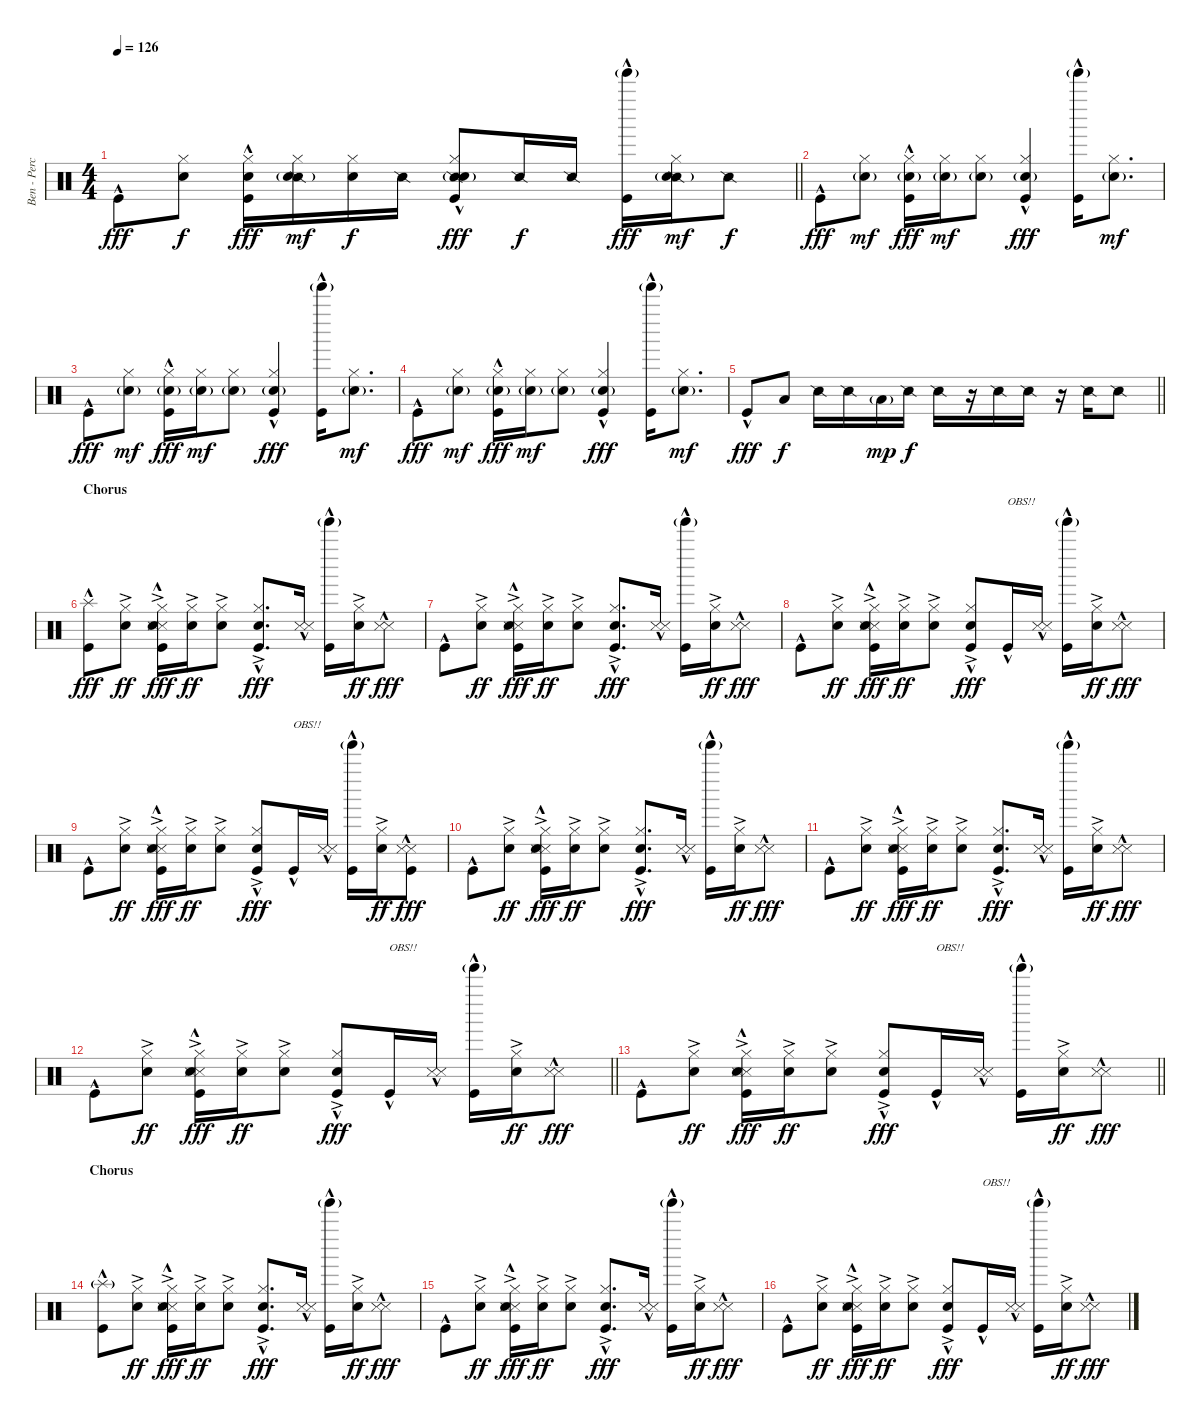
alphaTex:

\track ("Ben - Percussion" "Ben - Perc") {instrument percussion}
\staff {score}
\articulation defaults
\ts (4 4)
\tempo 126
\clef neutral
\barLineRight lightlight
\ks c "Kick (hit)"{hac}.8{dy fff}
("Hi-Hat (closed)" "Snare (hit) 2").8{dy f} ("Hi-Hat (closed)" "Snare (hit) 2" "Kick (hit)"{hac}).16{dy fff} ("Hi-Hat (closed)" "Snare (side stick) 2" "Snare (hit) 2"{g}).16{dy mf} ("Hi-Hat (closed)" "Snare (hit) 2").16{dy f} "Snare (side stick) 2".16 ("Hi-Hat (closed)" "Snare (side stick) 2" "Snare (hit) 2"{g} "Kick (hit)"{hac}).8{dy fff} "Snare (side stick) 2".16{dy f} "Snare (side stick) 2".16 ("Tinkle Bell (hit)"{g} "Kick (hit)"{hac}).16{dy fff} ("Hi-Hat (closed)" "Snare (side stick) 2" "Snare (hit) 2"{g}).16{dy mf} "Snare (side stick) 2".8{dy f} |
"Kick (hit)"{hac}.8{dy fff} ("Hi-Hat (closed)" "Snare (hit) 2"{g}).8{dy mf} ("Hi-Hat (closed)" "Snare (hit) 2"{g} "Kick (hit)"{hac}).16{dy fff} ("Hi-Hat (closed)" "Snare (hit) 2"{g}).16{dy mf} ("Hi-Hat (closed)" "Snare (hit) 2"{g}).8 ("Hi-Hat (closed)" "Snare (hit) 2"{g} "Kick (hit)"{hac}).4{dy fff} ("Tinkle Bell (hit)"{g} "Kick (hit)"{hac}).16 ("Hi-Hat (closed)" "Snare (hit) 2"{g}).8{d dy mf} |
"Kick (hit)"{hac}.8{dy fff} ("Hi-Hat (closed)" "Snare (hit) 2"{g}).8{dy mf} ("Hi-Hat (closed)" "Snare (hit) 2"{g} "Kick (hit)"{hac}).16{dy fff} ("Hi-Hat (closed)" "Snare (hit) 2"{g}).16{dy mf} ("Hi-Hat (closed)" "Snare (hit) 2"{g}).8 ("Hi-Hat (closed)" "Snare (hit) 2"{g} "Kick (hit)"{hac}).4{dy fff} ("Tinkle Bell (hit)"{g} "Kick (hit)"{hac}).16 ("Hi-Hat (closed)" "Snare (hit) 2"{g}).8{d dy mf} |
"Kick (hit)"{hac}.8{dy fff} ("Hi-Hat (closed)" "Snare (hit) 2"{g}).8{dy mf} ("Hi-Hat (closed)" "Snare (hit) 2"{g} "Kick (hit)"{hac}).16{dy fff} ("Hi-Hat (closed)" "Snare (hit) 2"{g}).16{dy mf} ("Hi-Hat (closed)" "Snare (hit) 2"{g}).8 ("Hi-Hat (closed)" "Snare (hit) 2"{g} "Kick (hit)"{hac}).4{dy fff} ("Tinkle Bell (hit)"{g} "Kick (hit)"{hac}).16 ("Hi-Hat (closed)" "Snare (hit) 2"{g}).8{d dy mf} |
\barLineRight lightlight "Kick (hit)"{hac}.8{dy fff} "Low Tom (hit)".8{dy f} "Snare (side stick) 2".16 "Snare (side stick) 2".16 "Low Tom (hit)"{g}.16{dy mp} "Snare (side stick) 2".16{dy f} "Snare (side stick) 2".16
r.16 "Snare (side stick) 2".16 "Snare (side stick) 2".16 r.16 "Snare (side stick) 2".16 "Snare (side stick) 2".8 |
\section ("" "Chorus")
("Splash (hit)" "Kick (hit)"{hac}).8{dy fff} ("Hi-Hat (closed)"{ac} "Snare (hit) 2").8{dy ff} ("Hi-Hat (closed)"{ac} "Metronome (hit)"{hac} "Snare (side stick) 3"{hac} "Snare (hit) 2" "Kick (hit)"{hac}).16{dy fff} ("Hi-Hat (closed)"{ac} "Snare (hit) 2").16{dy ff} ("Hi-Hat (closed)"{ac} "Snare (hit) 2").8 ("Hi-Hat (closed)"{ac} "Snare (hit) 2" "Kick (hit)"{hac}).8{d dy fff} ("Metronome (hit)"{hac} "Snare (side stick) 3"{hac}).16 ("Tinkle Bell (hit)"{g} "Kick (hit)"{hac}).16 ("Hi-Hat (closed)"{ac} "Snare (hit) 2").16{dy ff} ("Metronome (hit)"{hac} "Snare (side stick) 3"{hac}).8{dy fff} |
"Kick (hit)"{hac}.8 ("Hi-Hat (closed)"{ac} "Snare (hit) 2").8{dy ff} ("Hi-Hat (closed)"{ac} "Metronome (hit)"{hac} "Snare (side stick) 3"{hac} "Snare (hit) 2" "Kick (hit)"{hac}).16{dy fff} ("Hi-Hat (closed)"{ac} "Snare (hit) 2").16{dy ff} ("Hi-Hat (closed)"{ac} "Snare (hit) 2").8 ("Hi-Hat (closed)"{ac} "Snare (hit) 2" "Kick (hit)"{hac}).8{d dy fff} ("Metronome (hit)"{hac} "Snare (side stick) 3"{hac}).16 ("Tinkle Bell (hit)"{g} "Kick (hit)"{hac}).16 ("Hi-Hat (closed)"{ac} "Snare (hit) 2").16{dy ff} ("Metronome (hit)"{hac} "Snare (side stick) 3"{hac}).8{dy fff} |
"Kick (hit)"{hac}.8 ("Hi-Hat (closed)"{ac} "Snare (hit) 2").8{dy ff} ("Hi-Hat (closed)"{ac} "Metronome (hit)"{hac} "Snare (side stick) 3"{hac} "Snare (hit) 2" "Kick (hit)"{hac}).16{dy fff} ("Hi-Hat (closed)"{ac} "Snare (hit) 2").16{dy ff} ("Hi-Hat (closed)"{ac} "Snare (hit) 2").8 ("Hi-Hat (closed)"{ac} "Snare (hit) 2" "Kick (hit)"{hac}).8{dy fff} "Kick (hit)"{hac}.16{txt "OBS!!"} ("Metronome (hit)"{hac} "Snare (side stick) 3"{hac}).16 ("Tinkle Bell (hit)"{g} "Kick (hit)"{hac}).16 ("Hi-Hat (closed)"{ac} "Snare (hit) 2").16{dy ff} ("Metronome (hit)"{hac} "Snare (side stick) 3"{hac}).8{dy fff} |
"Kick (hit)"{hac}.8 ("Hi-Hat (closed)"{ac} "Snare (hit) 2").8{dy ff} ("Hi-Hat (closed)"{ac} "Metronome (hit)"{hac} "Snare (side stick) 3"{hac} "Snare (hit) 2" "Kick (hit)"{hac}).16{dy fff} ("Hi-Hat (closed)"{ac} "Snare (hit) 2").16{dy ff} ("Hi-Hat (closed)"{ac} "Snare (hit) 2").8 ("Hi-Hat (closed)"{ac} "Snare (hit) 2" "Kick (hit)"{hac}).8{dy fff} "Kick (hit)"{hac}.16{txt "OBS!!"} ("Metronome (hit)"{hac} "Snare (side stick) 3"{hac}).16 ("Tinkle Bell (hit)"{g} "Kick (hit)"{hac}).16 ("Hi-Hat (closed)"{ac} "Snare (hit) 2").16{dy ff} ("Metronome (hit)"{hac} "Snare (side stick) 3"{hac} "Kick (hit)"{hac}).8{dy fff} |
"Kick (hit)"{hac}.8 ("Hi-Hat (closed)"{ac} "Snare (hit) 2").8{dy ff} ("Hi-Hat (closed)"{ac} "Metronome (hit)"{hac} "Snare (side stick) 3"{hac} "Snare (hit) 2" "Kick (hit)"{hac}).16{dy fff} ("Hi-Hat (closed)"{ac} "Snare (hit) 2").16{dy ff} ("Hi-Hat (closed)"{ac} "Snare (hit) 2").8 ("Hi-Hat (closed)"{ac} "Snare (hit) 2" "Kick (hit)"{hac}).8{d dy fff} ("Metronome (hit)"{hac} "Snare (side stick) 3"{hac}).16 ("Tinkle Bell (hit)"{g} "Kick (hit)"{hac}).16 ("Hi-Hat (closed)"{ac} "Snare (hit) 2").16{dy ff} ("Metronome (hit)"{hac} "Snare (side stick) 3"{hac}).8{dy fff} |
"Kick (hit)"{hac}.8 ("Hi-Hat (closed)"{ac} "Snare (hit) 2").8{dy ff} ("Hi-Hat (closed)"{ac} "Metronome (hit)"{hac} "Snare (side stick) 3"{hac} "Snare (hit) 2" "Kick (hit)"{hac}).16{dy fff} ("Hi-Hat (closed)"{ac} "Snare (hit) 2").16{dy ff} ("Hi-Hat (closed)"{ac} "Snare (hit) 2").8 ("Hi-Hat (closed)"{ac} "Snare (hit) 2" "Kick (hit)"{hac}).8{d dy fff} ("Metronome (hit)"{hac} "Snare (side stick) 3"{hac}).16 ("Tinkle Bell (hit)"{g} "Kick (hit)"{hac}).16 ("Hi-Hat (closed)"{ac} "Snare (hit) 2").16{dy ff} ("Metronome (hit)"{hac} "Snare (side stick) 3"{hac}).8{dy fff} |
\barLineRight lightlight "Kick (hit)"{hac}.8
("Hi-Hat (closed)"{ac} "Snare (hit) 2").8{dy ff} ("Hi-Hat (closed)"{ac} "Metronome (hit)"{hac} "Snare (side stick) 3"{hac} "Snare (hit) 2" "Kick (hit)"{hac}).16{dy fff} ("Hi-Hat (closed)"{ac} "Snare (hit) 2").16{dy ff} ("Hi-Hat (closed)"{ac} "Snare (hit) 2").8 ("Hi-Hat (closed)"{ac} "Snare (hit) 2" "Kick (hit)"{hac}).8{dy fff} "Kick (hit)"{hac}.16{txt "OBS!!"} ("Metronome (hit)"{hac} "Snare (side stick) 3"{hac}).16 ("Tinkle Bell (hit)"{g} "Kick (hit)"{hac}).16 ("Hi-Hat (closed)"{ac} "Snare (hit) 2").16{dy ff} ("Metronome (hit)"{hac} "Snare (side stick) 3"{hac}).8{dy fff} |
\barLineRight lightlight "Kick (hit)"{hac}.8
("Hi-Hat (closed)"{ac} "Snare (hit) 2").8{dy ff} ("Hi-Hat (closed)"{ac} "Metronome (hit)"{hac} "Snare (side stick) 3"{hac} "Snare (hit) 2" "Kick (hit)"{hac}).16{dy fff} ("Hi-Hat (closed)"{ac} "Snare (hit) 2").16{dy ff} ("Hi-Hat (closed)"{ac} "Snare (hit) 2").8 ("Hi-Hat (closed)"{ac} "Snare (hit) 2" "Kick (hit)"{hac}).8{dy fff} "Kick (hit)"{hac}.16{txt "OBS!!"} ("Metronome (hit)"{hac} "Snare (side stick) 3"{hac}).16 ("Tinkle Bell (hit)"{g} "Kick (hit)"{hac}).16 ("Hi-Hat (closed)"{ac} "Snare (hit) 2").16{dy ff} ("Metronome (hit)"{hac} "Snare (side stick) 3"{hac}).8{dy fff} |
\section ("" "Chorus")
("Splash (hit)"{g} "Kick (hit)"{hac}).8 ("Hi-Hat (closed)"{ac} "Snare (hit) 2").8{dy ff} ("Hi-Hat (closed)"{ac} "Metronome (hit)"{hac} "Snare (side stick) 3"{hac} "Snare (hit) 2" "Kick (hit)"{hac}).16{dy fff} ("Hi-Hat (closed)"{ac} "Snare (hit) 2").16{dy ff} ("Hi-Hat (closed)"{ac} "Snare (hit) 2").8 ("Hi-Hat (closed)"{ac} "Snare (hit) 2" "Kick (hit)"{hac}).8{d dy fff} ("Metronome (hit)"{hac} "Snare (side stick) 3"{hac}).16 ("Tinkle Bell (hit)"{g} "Kick (hit)"{hac}).16 ("Hi-Hat (closed)"{ac} "Snare (hit) 2").16{dy ff} ("Metronome (hit)"{hac} "Snare (side stick) 3"{hac}).8{dy fff} |
"Kick (hit)"{hac}.8 ("Hi-Hat (closed)"{ac} "Snare (hit) 2").8{dy ff} ("Hi-Hat (closed)"{ac} "Metronome (hit)"{hac} "Snare (side stick) 3"{hac} "Snare (hit) 2" "Kick (hit)"{hac}).16{dy fff} ("Hi-Hat (closed)"{ac} "Snare (hit) 2").16{dy ff} ("Hi-Hat (closed)"{ac} "Snare (hit) 2").8 ("Hi-Hat (closed)"{ac} "Snare (hit) 2" "Kick (hit)"{hac}).8{d dy fff} ("Metronome (hit)"{hac} "Snare (side stick) 3"{hac}).16 ("Tinkle Bell (hit)"{g} "Kick (hit)"{hac}).16 ("Hi-Hat (closed)"{ac} "Snare (hit) 2").16{dy ff} ("Metronome (hit)"{hac} "Snare (side stick) 3"{hac}).8{dy fff} |
"Kick (hit)"{hac}.8 ("Hi-Hat (closed)"{ac} "Snare (hit) 2").8{dy ff} ("Hi-Hat (closed)"{ac} "Metronome (hit)"{hac} "Snare (side stick) 3"{hac} "Snare (hit) 2" "Kick (hit)"{hac}).16{dy fff} ("Hi-Hat (closed)"{ac} "Snare (hit) 2").16{dy ff} ("Hi-Hat (closed)"{ac} "Snare (hit) 2").8 ("Hi-Hat (closed)"{ac} "Snare (hit) 2" "Kick (hit)"{hac}).8{dy fff} "Kick (hit)"{hac}.16{txt "OBS!!"} ("Metronome (hit)"{hac} "Snare (side stick) 3"{hac}).16 ("Tinkle Bell (hit)"{g} "Kick (hit)"{hac}).16 ("Hi-Hat (closed)"{ac} "Snare (hit) 2").16{dy ff} ("Metronome (hit)"{hac} "Snare (side stick) 3"{hac}).8{dy fff}
